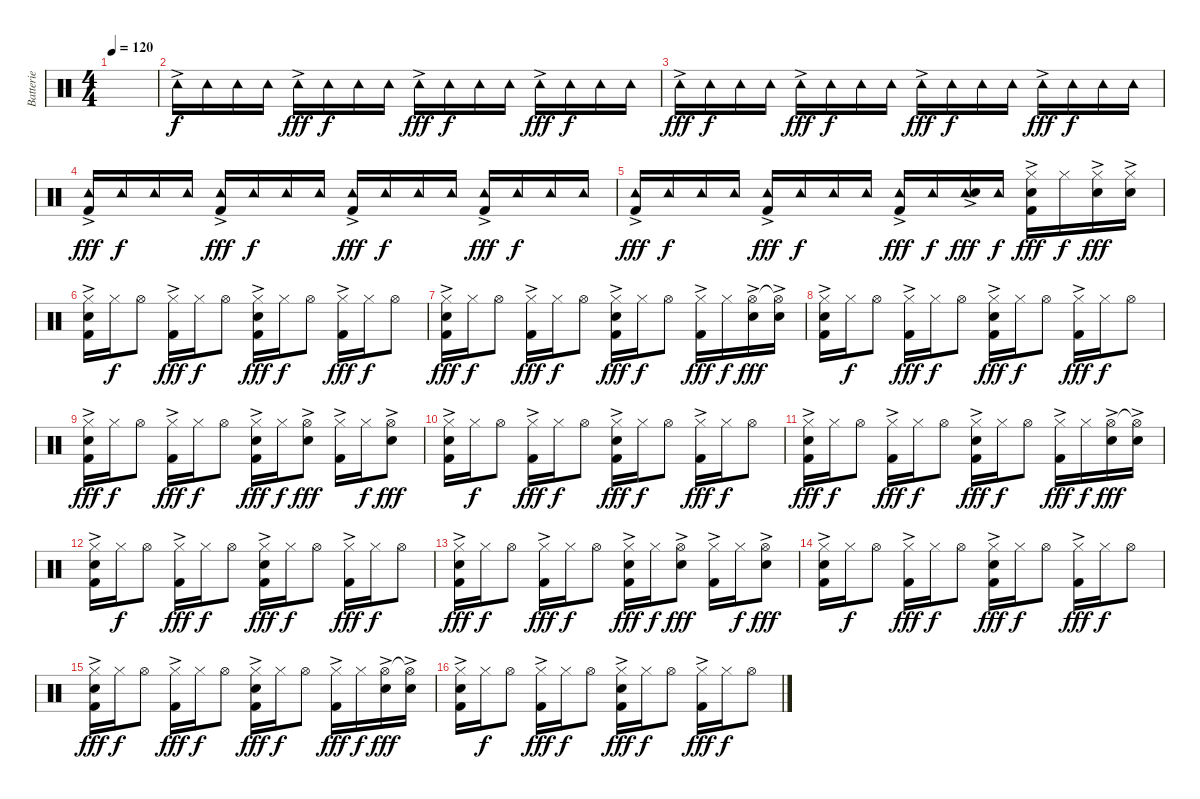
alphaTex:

\track ("Batterie" "Batterie") {instrument percussion}
\staff {score}
\articulation defaults
\ts (4 4)
\tempo 120
\clef neutral
\ks c
|
"Tambourine (hit)"{ac}.16 "Tambourine (hit)".16{dy f} "Tambourine (hit)".16 "Tambourine (hit)".16 "Tambourine (hit)"{ac}.16{dy fff} "Tambourine (hit)".16{dy f} "Tambourine (hit)".16 "Tambourine (hit)".16 "Tambourine (hit)"{ac}.16{dy fff} "Tambourine (hit)".16{dy f} "Tambourine (hit)".16 "Tambourine (hit)".16 "Tambourine (hit)"{ac}.16{dy fff} "Tambourine (hit)".16{dy f} "Tambourine (hit)".16 "Tambourine (hit)".16 |
"Tambourine (hit)"{ac}.16{dy fff} "Tambourine (hit)".16{dy f} "Tambourine (hit)".16 "Tambourine (hit)".16 "Tambourine (hit)"{ac}.16{dy fff} "Tambourine (hit)".16{dy f} "Tambourine (hit)".16 "Tambourine (hit)".16 "Tambourine (hit)"{ac}.16{dy fff} "Tambourine (hit)".16{dy f} "Tambourine (hit)".16 "Tambourine (hit)".16 "Tambourine (hit)"{ac}.16{dy fff} "Tambourine (hit)".16{dy f} "Tambourine (hit)".16 "Tambourine (hit)".16 |
("Tambourine (hit)"{ac} "Kick (hit) 2"{ac}).16{dy fff} "Tambourine (hit)".16{dy f} "Tambourine (hit)".16 "Tambourine (hit)".16 ("Tambourine (hit)"{ac} "Kick (hit) 2"{ac}).16{dy fff} "Tambourine (hit)".16{dy f} "Tambourine (hit)".16 "Tambourine (hit)".16 ("Tambourine (hit)"{ac} "Kick (hit) 2"{ac}).16{dy fff} "Tambourine (hit)".16{dy f} "Tambourine (hit)".16 "Tambourine (hit)".16 ("Tambourine (hit)"{ac} "Kick (hit) 2"{ac}).16{dy fff} "Tambourine (hit)".16{dy f} "Tambourine (hit)".16 "Tambourine (hit)".16 |
("Tambourine (hit)"{ac} "Kick (hit) 2"{ac}).16{dy fff} "Tambourine (hit)".16{dy f} "Tambourine (hit)".16 "Tambourine (hit)".16 ("Tambourine (hit)"{ac} "Kick (hit) 2"{ac}).16{dy fff} "Tambourine (hit)".16{dy f} "Tambourine (hit)".16 "Tambourine (hit)".16 ("Tambourine (hit)"{ac} "Kick (hit) 2"{ac}).16{dy fff} "Tambourine (hit)".16{dy f} ("Tambourine (hit)" "Electric Snare (hit)"{ac}).16{dy fff} "Tambourine (hit)".16{dy f} ("Hi-Hat (closed)"{ac} "Electric Snare (hit)"{ac} "Kick (hit) 2"{ac}).16{dy fff} "Hi-Hat (closed)".16{dy f} ("Hi-Hat (closed)" "Electric Snare (hit)"{ac}).16{dy fff} ("Hi-Hat (closed)" "Electric Snare (hit)"{ac}).16 |
("Hi-Hat (closed)" "Electric Snare (hit)"{ac} "Kick (hit) 2"{ac}).16 "Hi-Hat (closed)".16{dy f} "Hi-Hat (open)".8 ("Hi-Hat (closed)" "Kick (hit) 2"{ac}).16{dy fff} "Hi-Hat (closed)".16{dy f} "Hi-Hat (open)".8 ("Hi-Hat (closed)" "Electric Snare (hit)"{ac} "Kick (hit) 2"{ac}).16{dy fff} "Hi-Hat (closed)".16{dy f} "Hi-Hat (open)".8 ("Hi-Hat (closed)" "Kick (hit) 2"{ac}).16{dy fff} "Hi-Hat (closed)".16{dy f} "Hi-Hat (open)".8 |
("Hi-Hat (closed)" "Electric Snare (hit)"{ac} "Kick (hit) 2"{ac}).16{dy fff} "Hi-Hat (closed)".16{dy f} "Hi-Hat (open)".8 ("Hi-Hat (closed)" "Kick (hit) 2"{ac}).16{dy fff} "Hi-Hat (closed)".16{dy f} "Hi-Hat (open)".8 ("Hi-Hat (closed)" "Electric Snare (hit)"{ac} "Kick (hit) 2"{ac}).16{dy fff} "Hi-Hat (closed)".16{dy f} "Hi-Hat (open)".8 ("Hi-Hat (closed)" "Kick (hit) 2"{ac}).16{dy fff} "Hi-Hat (closed)".16{dy f} ("Hi-Hat (open)" "Electric Snare (hit)"{ac}).16{dy fff} ("Hi-Hat (open)"{t} "Electric Snare (hit)"{ac}).16 |
("Hi-Hat (closed)" "Electric Snare (hit)"{ac} "Kick (hit) 2"{ac}).16 "Hi-Hat (closed)".16{dy f} "Hi-Hat (open)".8 ("Hi-Hat (closed)" "Kick (hit) 2"{ac}).16{dy fff} "Hi-Hat (closed)".16{dy f} "Hi-Hat (open)".8 ("Hi-Hat (closed)" "Electric Snare (hit)"{ac} "Kick (hit) 2"{ac}).16{dy fff} "Hi-Hat (closed)".16{dy f} "Hi-Hat (open)".8 ("Hi-Hat (closed)" "Kick (hit) 2"{ac}).16{dy fff} "Hi-Hat (closed)".16{dy f} "Hi-Hat (open)".8 |
("Hi-Hat (closed)" "Electric Snare (hit)"{ac} "Kick (hit) 2"{ac}).16{dy fff} "Hi-Hat (closed)".16{dy f} "Hi-Hat (open)".8 ("Hi-Hat (closed)" "Kick (hit) 2"{ac}).16{dy fff} "Hi-Hat (closed)".16{dy f} "Hi-Hat (open)".8 ("Hi-Hat (closed)" "Electric Snare (hit)"{ac} "Kick (hit) 2"{ac}).16{dy fff} "Hi-Hat (closed)".16{dy f} ("Hi-Hat (open)" "Electric Snare (hit)"{ac}).8{dy fff} ("Hi-Hat (closed)" "Kick (hit) 2"{ac}).16 "Hi-Hat (closed)".16{dy f} ("Hi-Hat (open)" "Electric Snare (hit)"{ac}).8{dy fff} |
("Hi-Hat (closed)" "Electric Snare (hit)"{ac} "Kick (hit) 2"{ac}).16 "Hi-Hat (closed)".16{dy f} "Hi-Hat (open)".8 ("Hi-Hat (closed)" "Kick (hit) 2"{ac}).16{dy fff} "Hi-Hat (closed)".16{dy f} "Hi-Hat (open)".8 ("Hi-Hat (closed)" "Electric Snare (hit)"{ac} "Kick (hit) 2"{ac}).16{dy fff} "Hi-Hat (closed)".16{dy f} "Hi-Hat (open)".8 ("Hi-Hat (closed)" "Kick (hit) 2"{ac}).16{dy fff} "Hi-Hat (closed)".16{dy f} "Hi-Hat (open)".8 |
("Hi-Hat (closed)" "Electric Snare (hit)"{ac} "Kick (hit) 2"{ac}).16{dy fff} "Hi-Hat (closed)".16{dy f} "Hi-Hat (open)".8 ("Hi-Hat (closed)" "Kick (hit) 2"{ac}).16{dy fff} "Hi-Hat (closed)".16{dy f} "Hi-Hat (open)".8 ("Hi-Hat (closed)" "Electric Snare (hit)"{ac} "Kick (hit) 2"{ac}).16{dy fff} "Hi-Hat (closed)".16{dy f} "Hi-Hat (open)".8 ("Hi-Hat (closed)" "Kick (hit) 2"{ac}).16{dy fff} "Hi-Hat (closed)".16{dy f} ("Hi-Hat (open)" "Electric Snare (hit)"{ac}).16{dy fff} ("Hi-Hat (open)"{t} "Electric Snare (hit)"{ac}).16 |
("Hi-Hat (closed)" "Electric Snare (hit)"{ac} "Kick (hit) 2"{ac}).16 "Hi-Hat (closed)".16{dy f} "Hi-Hat (open)".8 ("Hi-Hat (closed)" "Kick (hit) 2"{ac}).16{dy fff} "Hi-Hat (closed)".16{dy f} "Hi-Hat (open)".8 ("Hi-Hat (closed)" "Electric Snare (hit)"{ac} "Kick (hit) 2"{ac}).16{dy fff} "Hi-Hat (closed)".16{dy f} "Hi-Hat (open)".8 ("Hi-Hat (closed)" "Kick (hit) 2"{ac}).16{dy fff} "Hi-Hat (closed)".16{dy f} "Hi-Hat (open)".8 |
("Hi-Hat (closed)" "Electric Snare (hit)"{ac} "Kick (hit) 2"{ac}).16{dy fff} "Hi-Hat (closed)".16{dy f} "Hi-Hat (open)".8 ("Hi-Hat (closed)" "Kick (hit) 2"{ac}).16{dy fff} "Hi-Hat (closed)".16{dy f} "Hi-Hat (open)".8 ("Hi-Hat (closed)" "Electric Snare (hit)"{ac} "Kick (hit) 2"{ac}).16{dy fff} "Hi-Hat (closed)".16{dy f} ("Hi-Hat (open)" "Electric Snare (hit)"{ac}).8{dy fff} ("Hi-Hat (closed)" "Kick (hit) 2"{ac}).16 "Hi-Hat (closed)".16{dy f} ("Hi-Hat (open)" "Electric Snare (hit)"{ac}).8{dy fff} |
("Hi-Hat (closed)" "Electric Snare (hit)"{ac} "Kick (hit) 2"{ac}).16 "Hi-Hat (closed)".16{dy f} "Hi-Hat (open)".8 ("Hi-Hat (closed)" "Kick (hit) 2"{ac}).16{dy fff} "Hi-Hat (closed)".16{dy f} "Hi-Hat (open)".8 ("Hi-Hat (closed)" "Electric Snare (hit)"{ac} "Kick (hit) 2"{ac}).16{dy fff} "Hi-Hat (closed)".16{dy f} "Hi-Hat (open)".8 ("Hi-Hat (closed)" "Kick (hit) 2"{ac}).16{dy fff} "Hi-Hat (closed)".16{dy f} "Hi-Hat (open)".8 |
("Hi-Hat (closed)" "Electric Snare (hit)"{ac} "Kick (hit) 2"{ac}).16{dy fff} "Hi-Hat (closed)".16{dy f} "Hi-Hat (open)".8 ("Hi-Hat (closed)" "Kick (hit) 2"{ac}).16{dy fff} "Hi-Hat (closed)".16{dy f} "Hi-Hat (open)".8 ("Hi-Hat (closed)" "Electric Snare (hit)"{ac} "Kick (hit) 2"{ac}).16{dy fff} "Hi-Hat (closed)".16{dy f} "Hi-Hat (open)".8 ("Hi-Hat (closed)" "Kick (hit) 2"{ac}).16{dy fff} "Hi-Hat (closed)".16{dy f} ("Hi-Hat (open)" "Electric Snare (hit)"{ac}).16{dy fff} ("Hi-Hat (open)"{t} "Electric Snare (hit)"{ac}).16 |
("Hi-Hat (closed)" "Electric Snare (hit)"{ac} "Kick (hit) 2"{ac}).16 "Hi-Hat (closed)".16{dy f} "Hi-Hat (open)".8 ("Hi-Hat (closed)" "Kick (hit) 2"{ac}).16{dy fff} "Hi-Hat (closed)".16{dy f} "Hi-Hat (open)".8 ("Hi-Hat (closed)" "Electric Snare (hit)"{ac} "Kick (hit) 2"{ac}).16{dy fff} "Hi-Hat (closed)".16{dy f} "Hi-Hat (open)".8 ("Hi-Hat (closed)" "Kick (hit) 2"{ac}).16{dy fff} "Hi-Hat (closed)".16{dy f} "Hi-Hat (open)".8
